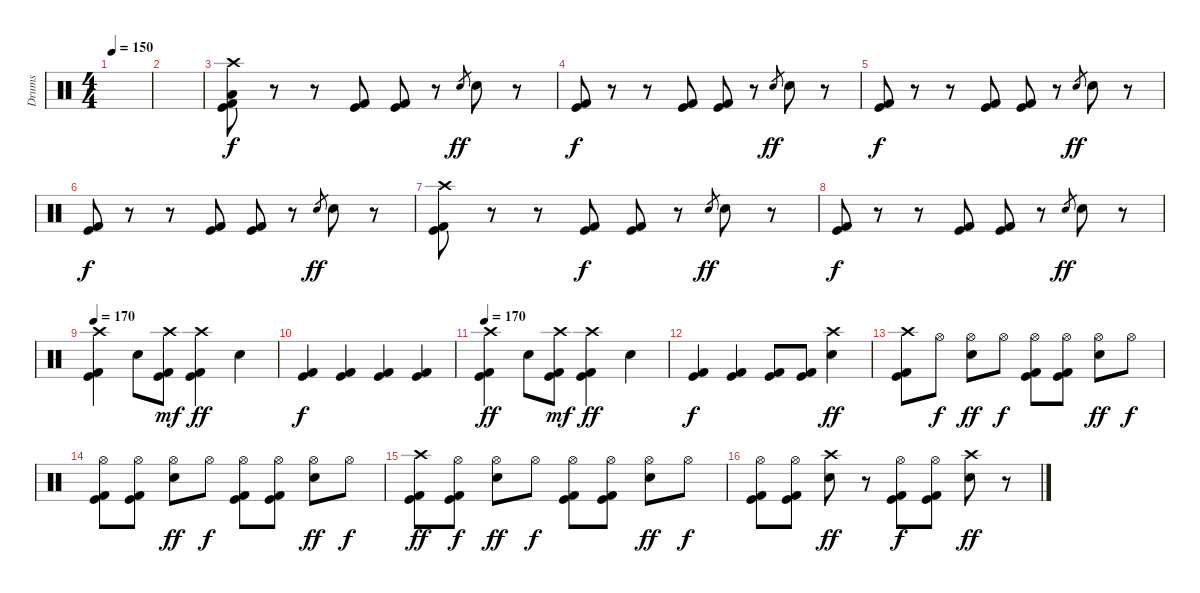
\track ("Drums" "Drums") {instrument percussion}
\staff {score}
\articulation defaults
\ts (4 4)
\tempo 150
\clef neutral
\ks c
|
|
("Crash high (hit)" "Low Tom (hit)" "Kick (hit)" "Kick (hit) 2").8 r.8 r.8 ("Kick (hit)" "Kick (hit) 2").8{dy f} ("Kick (hit)" "Kick (hit) 2").8 r.8 "Snare (hit) 2".8{gr dy ff} "Snare (hit) 2".8 r.8 |
("Kick (hit)" "Kick (hit) 2").8{dy f} r.8 r.8 ("Kick (hit)" "Kick (hit) 2").8 ("Kick (hit)" "Kick (hit) 2").8 r.8 "Snare (hit) 2".8{gr dy ff} "Snare (hit) 2".8 r.8 |
("Kick (hit)" "Kick (hit) 2").8{dy f} r.8 r.8 ("Kick (hit)" "Kick (hit) 2").8 ("Kick (hit)" "Kick (hit) 2").8 r.8 "Snare (hit) 2".8{gr dy ff} "Snare (hit) 2".8 r.8 |
("Kick (hit)" "Kick (hit) 2").8{dy f} r.8 r.8 ("Kick (hit)" "Kick (hit) 2").8 ("Kick (hit)" "Kick (hit) 2").8 r.8 "Snare (hit) 2".8{gr dy ff} "Snare (hit) 2".8 r.8 |
("Crash high (hit)" "Kick (hit)" "Kick (hit) 2").8 r.8 r.8 ("Kick (hit)" "Kick (hit) 2").8{dy f} ("Kick (hit)" "Kick (hit) 2").8 r.8 "Snare (hit) 2".8{gr dy ff} "Snare (hit) 2".8 r.8 |
("Kick (hit)" "Kick (hit) 2").8{dy f} r.8 r.8 ("Kick (hit)" "Kick (hit) 2").8 ("Kick (hit)" "Kick (hit) 2").8 r.8 "Snare (hit) 2".8{gr dy ff} "Snare (hit) 2".8 r.8 |
\tempo 170
("Crash high (hit)" "Kick (hit)" "Kick (hit) 2").4 "Snare (hit) 2".8 ("Crash high (hit)" "Kick (hit)" "Kick (hit) 2").8{dy mf} ("Crash high (hit)" "Kick (hit)" "Kick (hit) 2").4{dy ff} "Snare (hit) 2".4 |
("Kick (hit)" "Kick (hit) 2").4{dy f} ("Kick (hit)" "Kick (hit) 2").4 ("Kick (hit)" "Kick (hit) 2").4 ("Kick (hit)" "Kick (hit) 2").4 |
\tempo 170
("Crash high (hit)" "Kick (hit)" "Kick (hit) 2").4{dy ff} "Snare (hit) 2".8 ("Crash high (hit)" "Kick (hit)" "Kick (hit) 2").8{dy mf} ("Crash high (hit)" "Kick (hit)" "Kick (hit) 2").4{dy ff} "Snare (hit) 2".4 |
("Kick (hit)" "Kick (hit) 2").4{dy f} ("Kick (hit)" "Kick (hit) 2").4 ("Kick (hit)" "Kick (hit) 2").8 ("Kick (hit)" "Kick (hit) 2").8 ("Crash high (hit)" "Snare (hit) 2").4{dy ff} |
("Crash high (hit)" "Kick (hit)" "Kick (hit) 2").8 "Hi-Hat (open)".8{dy f} ("Hi-Hat (open)" "Snare (hit) 2").8{dy ff} "Hi-Hat (open)".8{dy f} ("Hi-Hat (open)" "Kick (hit)" "Kick (hit) 2").8 ("Hi-Hat (open)" "Kick (hit)" "Kick (hit) 2").8 ("Hi-Hat (open)" "Snare (hit) 2").8{dy ff} "Hi-Hat (open)".8{dy f} |
("Hi-Hat (open)" "Kick (hit)" "Kick (hit) 2").8 ("Hi-Hat (open)" "Kick (hit)" "Kick (hit) 2").8 ("Hi-Hat (open)" "Snare (hit) 2").8{dy ff} "Hi-Hat (open)".8{dy f} ("Hi-Hat (open)" "Kick (hit)" "Kick (hit) 2").8 ("Hi-Hat (open)" "Kick (hit)" "Kick (hit) 2").8 ("Hi-Hat (open)" "Snare (hit) 2").8{dy ff} "Hi-Hat (open)".8{dy f} |
("Crash high (hit)" "Kick (hit)" "Kick (hit) 2").8{dy ff} ("Hi-Hat (open)" "Kick (hit)" "Kick (hit) 2").8{dy f} ("Hi-Hat (open)" "Snare (hit) 2").8{dy ff} "Hi-Hat (open)".8{dy f} ("Hi-Hat (open)" "Kick (hit)" "Kick (hit) 2").8 ("Hi-Hat (open)" "Kick (hit)" "Kick (hit) 2").8 ("Hi-Hat (open)" "Snare (hit) 2").8{dy ff} "Hi-Hat (open)".8{dy f} |
("Hi-Hat (open)" "Kick (hit)" "Kick (hit) 2").8 ("Hi-Hat (open)" "Kick (hit)" "Kick (hit) 2").8 ("Crash high (hit)" "Snare (hit) 2").8{dy ff} r.8 ("Hi-Hat (open)" "Kick (hit)" "Kick (hit) 2").8{dy f} ("Hi-Hat (open)" "Kick (hit)" "Kick (hit) 2").8 ("Crash high (hit)" "Snare (hit) 2").8{dy ff} r.8
